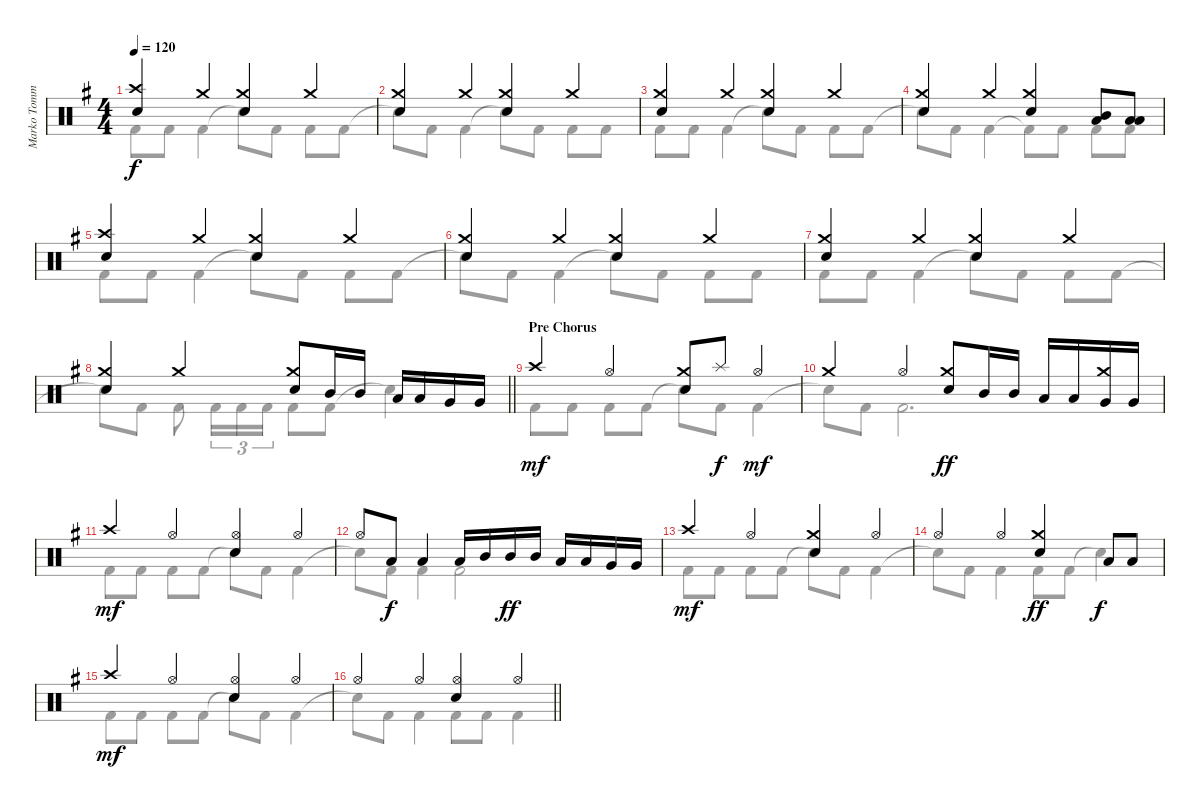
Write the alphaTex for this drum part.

\track ("Marko Tommila (drums)" "Marko Tomm") {instrument percussion}
\staff {score}
\articulation defaults
\voice
\ts (4 4)
\tempo 120
\clef neutral
\ks eminor
("Crash high (hit)" "Electric Snare (hit)").4{dy f} "Crash medium (hit)".4 ("Crash medium (hit)" "Electric Snare (hit)").4 "Crash medium (hit)".4 |
("Crash medium (hit)" "Electric Snare (hit)").4 "Crash medium (hit)".4 ("Crash medium (hit)" "Electric Snare (hit)").4 "Crash medium (hit)".4 |
("Crash medium (hit)" "Electric Snare (hit)").4 "Crash medium (hit)".4 ("Crash medium (hit)" "Electric Snare (hit)").4 "Crash medium (hit)".4 |
("Crash medium (hit)" "Electric Snare (hit)").4 "Crash medium (hit)".4 ("Crash medium (hit)" "Electric Snare (hit)").4 ("Low Tom (hit)" "Mid Tom (hit)").8 ("Low Floor Tom (hit)" "Low Tom (hit)").8 |
("Crash high (hit)" "Electric Snare (hit)").4 "Crash medium (hit)".4 ("Crash medium (hit)" "Electric Snare (hit)").4 "Crash medium (hit)".4 |
("Crash medium (hit)" "Electric Snare (hit)").4 "Crash medium (hit)".4 ("Crash medium (hit)" "Electric Snare (hit)").4 "Crash medium (hit)".4 |
("Crash medium (hit)" "Electric Snare (hit)").4 "Crash medium (hit)".4 ("Crash medium (hit)" "Electric Snare (hit)").4 "Crash medium (hit)".4 |
\barLineRight lightlight
("Crash medium (hit)" "Electric Snare (hit)").4 "Crash medium (hit)".4 ("Crash medium (hit)" "Electric Snare (hit)").8 "Mid Tom (hit)".16 "Mid Tom (hit)".16 "Low Tom (hit)".16 "Low Tom (hit)".16 "Very Low Tom (hit)".16 "Very Low Tom (hit)".16 |
\section ("" "Pre Chorus")
"Crash high (hit)".4{dy mf} "Hi-Hat (open)".4 ("Crash medium (hit)" "Electric Snare (hit)").8 "Splash (hit)".8{dy f} "Hi-Hat (open)".4{dy mf} |
"Crash medium (hit)".4 "Hi-Hat (open)".4 ("Crash medium (hit)" "Electric Snare (hit)").8{dy ff} "Mid Tom (hit)".16 "Mid Tom (hit)".16 "Low Tom (hit)".16 "Low Tom (hit)".16 ("Crash medium (hit)" "Very Low Tom (hit)").16 "Very Low Tom (hit)".16 |
"Crash high (hit)".4{dy mf} "Hi-Hat (open)".4 ("Hi-Hat (open)" "Electric Snare (hit)").4 "Hi-Hat (open)".4 |
"Hi-Hat (open)".8 "Low Tom (hit)".8{dy f} "Low Tom (hit)".4 "Low Tom (hit)".16 "Mid Tom (hit)".16 "Mid Tom (hit)".16{dy ff} "Mid Tom (hit)".16 "Low Tom (hit)".16 "Low Tom (hit)".16 "Very Low Tom (hit)".16 "Very Low Tom (hit)".16 |
"Crash high (hit)".4{dy mf} "Hi-Hat (open)".4 ("Crash medium (hit)" "Electric Snare (hit)").4 "Hi-Hat (open)".4 |
"Hi-Hat (open)".4 "Hi-Hat (open)".4 ("Crash medium (hit)" "Electric Snare (hit)").4{dy ff} "Low Tom (hit)".8{dy f} "Low Tom (hit)".8 |
"Crash high (hit)".4{dy mf} "Hi-Hat (open)".4 ("Hi-Hat (open)" "Electric Snare (hit)").4 "Hi-Hat (open)".4 |
\barLineRight lightlight "Hi-Hat (open)".4 "Hi-Hat (open)".4
("Hi-Hat (open)" "Electric Snare (hit)").4 "Hi-Hat (open)".4
\voice
\clef neutral
\ottava regular
\simile none
\ks eminor "Kick (hit) 2".8{dy f} "Kick (hit) 2".8 "Kick (hit) 2".4 "Snare (hit)"{t}.8 "Kick (hit) 2".8 "Kick (hit) 2".8 "Kick (hit) 2".8
|
"Snare (hit)"{t}.8 "Kick (hit) 2".8 "Kick (hit) 2".4 "Snare (hit)"{t}.8 "Kick (hit) 2".8 "Kick (hit) 2".8 "Kick (hit) 2".8 |
"Kick (hit) 2".8 "Kick (hit) 2".8 "Kick (hit) 2".4 "Snare (hit)"{t}.8 "Kick (hit) 2".8 "Kick (hit) 2".8 "Kick (hit) 2".8 |
"Snare (hit)"{t}.8 "Kick (hit) 2".8 "Kick (hit) 2".4 "Kick (hit) 2"{t}.8 "Kick (hit) 2".8 "Kick (hit) 2".8 "Kick (hit) 2".8 |
"Kick (hit) 2".8 "Kick (hit) 2".8 "Kick (hit) 2".4 "Snare (hit)"{t}.8 "Kick (hit) 2".8 "Kick (hit) 2".8 "Kick (hit) 2".8 |
"Snare (hit)"{t}.8 "Kick (hit) 2".8 "Kick (hit) 2".4 "Snare (hit)"{t}.8 "Kick (hit) 2".8 "Kick (hit) 2".8 "Kick (hit) 2".8 |
"Kick (hit) 2".8 "Kick (hit) 2".8 "Kick (hit) 2".4 "Snare (hit)"{t}.8 "Kick (hit) 2".8 "Kick (hit) 2".8 "Kick (hit) 2".8 |
\barLineRight lightlight "Snare (hit)"{t}.8 "Kick (hit) 2".8 "Kick (hit) 2".8 "Kick (hit) 2".16{tu (3 2)} "Kick (hit) 2".16{tu (3 2)} "Kick (hit) 2".16{tu (3 2)} "Kick (hit) 2".8 "Kick (hit) 2".8 "Snare (hit)"{t}.4
|
"Kick (hit) 2".8 "Kick (hit) 2".8 "Kick (hit) 2".8 "Kick (hit) 2".8 "Snare (hit)"{t}.8 "Kick (hit) 2".8 "Kick (hit) 2".4 |
"Snare (hit)"{t}.8 "Kick (hit) 2".8 "Kick (hit) 2".2{d} |
"Kick (hit) 2".8 "Kick (hit) 2".8 "Kick (hit) 2".8 "Kick (hit) 2".8 "Snare (hit)"{t}.8 "Kick (hit) 2".8 "Kick (hit) 2".4 |
"Snare (hit)"{t}.8 "Kick (hit) 2".8 "Kick (hit) 2".4 "Kick (hit) 2".2 |
"Kick (hit) 2".8 "Kick (hit) 2".8 "Kick (hit) 2".8 "Kick (hit) 2".8 "Snare (hit)"{t}.8 "Kick (hit) 2".8 "Kick (hit) 2".4 |
"Snare (hit)"{t}.8 "Kick (hit) 2".8 "Kick (hit) 2".4 "Kick (hit) 2".8 "Kick (hit) 2".8 "Snare (hit)"{t}.4 |
"Kick (hit) 2".8 "Kick (hit) 2".8 "Kick (hit) 2".8 "Kick (hit) 2".8 "Snare (hit)"{t}.8 "Kick (hit) 2".8 "Kick (hit) 2".4 |
\barLineRight lightlight "Snare (hit)"{t}.8 "Kick (hit) 2".8 "Kick (hit) 2".4 "Kick (hit) 2".8 "Kick (hit) 2".8 "Kick (hit) 2".4
